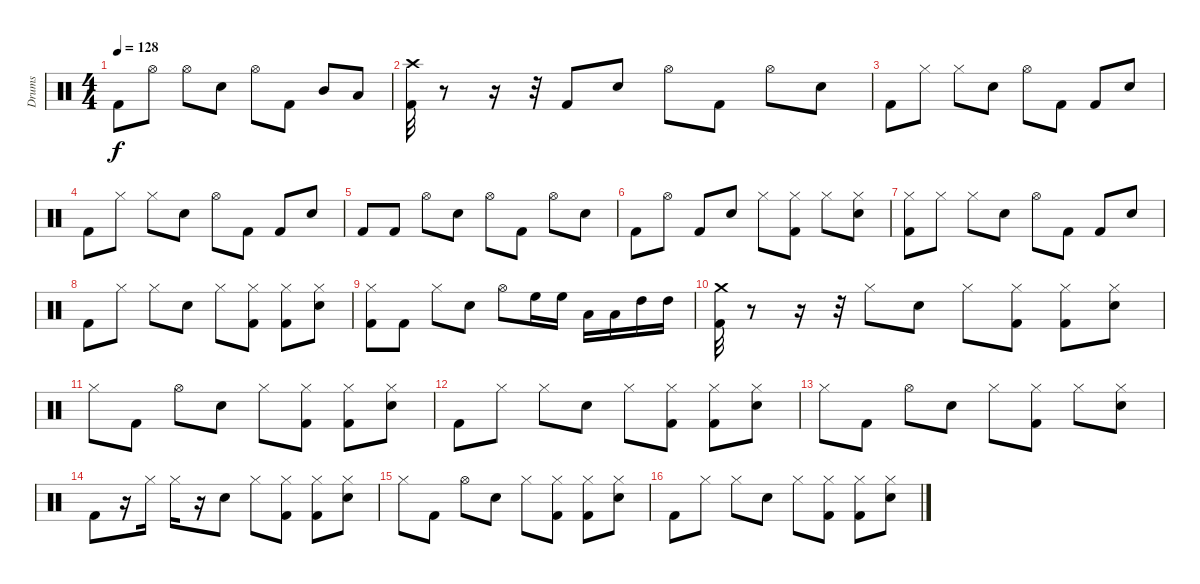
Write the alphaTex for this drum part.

\track ("Drums" "Drums") {instrument percussion}
\staff {score}
\articulation defaults
\ts (4 4)
\tempo 128
\clef neutral
\ks c "Kick (hit) 2".8{dy f} "Hi-Hat (open)".8 "Hi-Hat (open)".8 "Snare (hit) 2".8 "Hi-Hat (open)".8 "Kick (hit) 2".8 "Mid Tom (hit)".8 "Low Tom (hit)".8
|
("Crash high (hit)" "Kick (hit) 2").32 r.8 r.16 r.32 "Kick (hit) 2".8 "Snare (hit) 2".8 "Hi-Hat (open)".8 "Kick (hit) 2".8 "Hi-Hat (open)".8 "Snare (hit) 2".8 |
"Kick (hit) 2".8 "Hi-Hat (closed)".8 "Hi-Hat (closed)".8 "Snare (hit) 2".8 "Hi-Hat (open)".8 "Kick (hit) 2".8 "Kick (hit) 2".8 "Snare (hit) 2".8 |
"Kick (hit) 2".8 "Hi-Hat (closed)".8 "Hi-Hat (closed)".8 "Snare (hit) 2".8 "Hi-Hat (open)".8 "Kick (hit) 2".8 "Kick (hit) 2".8 "Snare (hit) 2".8 |
"Kick (hit) 2".8 "Kick (hit) 2".8 "Hi-Hat (open)".8 "Snare (hit) 2".8 "Hi-Hat (open)".8 "Kick (hit) 2".8 "Hi-Hat (open)".8 "Snare (hit) 2".8 |
"Kick (hit) 2".8 "Hi-Hat (open)".8 "Kick (hit) 2".8 "Snare (hit) 2".8 "Hi-Hat (closed)".8 ("Hi-Hat (closed)" "Kick (hit) 2").8 "Hi-Hat (closed)".8 ("Hi-Hat (closed)" "Snare (hit) 2").8 |
("Hi-Hat (closed)" "Kick (hit) 2").8 "Hi-Hat (closed)".8 "Hi-Hat (closed)".8 "Snare (hit) 2".8 "Hi-Hat (open)".8 "Kick (hit) 2".8 "Kick (hit) 2".8 "Snare (hit) 2".8 |
"Kick (hit) 2".8 "Hi-Hat (closed)".8 "Hi-Hat (closed)".8 "Snare (hit) 2".8 "Hi-Hat (closed)".8 ("Hi-Hat (closed)" "Kick (hit) 2").8 ("Hi-Hat (closed)" "Kick (hit) 2").8 ("Hi-Hat (closed)" "Snare (hit) 2").8 |
("Hi-Hat (closed)" "Kick (hit) 2").8 "Kick (hit) 2".8 "Hi-Hat (closed)".8 "Snare (hit) 2".8 "Hi-Hat (open)".8 "High Floor Tom (hit)".16 "High Floor Tom (hit)".16 "Low Tom (hit)".16 "Low Tom (hit)".16 "High Tom (hit)".16 "High Tom (hit)".16 |
("Crash medium (hit)" "Kick (hit) 2").32 r.8 r.16 r.32 "Hi-Hat (closed)".8 "Snare (hit) 2".8 "Hi-Hat (closed)".8 ("Hi-Hat (closed)" "Kick (hit) 2").8 ("Hi-Hat (closed)" "Kick (hit) 2").8 ("Hi-Hat (closed)" "Snare (hit) 2").8 |
"Hi-Hat (closed)".8 "Kick (hit) 2".8 "Hi-Hat (open)".8 "Snare (hit) 2".8 "Hi-Hat (closed)".8 ("Hi-Hat (closed)" "Kick (hit) 2").8 ("Hi-Hat (closed)" "Kick (hit) 2").8 ("Hi-Hat (closed)" "Snare (hit) 2").8 |
"Kick (hit) 2".8 "Hi-Hat (closed)".8 "Hi-Hat (closed)".8 "Snare (hit) 2".8 "Hi-Hat (closed)".8 ("Hi-Hat (closed)" "Kick (hit) 2").8 ("Hi-Hat (closed)" "Kick (hit) 2").8 ("Hi-Hat (closed)" "Snare (hit) 2").8 |
"Hi-Hat (closed)".8 "Kick (hit) 2".8 "Hi-Hat (open)".8 "Snare (hit) 2".8 "Hi-Hat (closed)".8 ("Hi-Hat (closed)" "Kick (hit) 2").8 "Hi-Hat (closed)".8 ("Hi-Hat (closed)" "Snare (hit) 2").8 |
"Kick (hit) 2".8 r.16 "Hi-Hat (closed)".16 "Hi-Hat (closed)".16 r.16 "Snare (hit) 2".8 "Hi-Hat (closed)".8 ("Hi-Hat (closed)" "Kick (hit) 2").8 ("Hi-Hat (closed)" "Kick (hit) 2").8 ("Hi-Hat (closed)" "Snare (hit) 2").8 |
"Hi-Hat (closed)".8 "Kick (hit) 2".8 "Hi-Hat (open)".8 "Snare (hit) 2".8 "Hi-Hat (closed)".8 ("Hi-Hat (closed)" "Kick (hit) 2").8 ("Hi-Hat (closed)" "Kick (hit) 2").8 ("Hi-Hat (closed)" "Snare (hit) 2").8 |
"Kick (hit) 2".8 "Hi-Hat (closed)".8 "Hi-Hat (closed)".8 "Snare (hit) 2".8 "Hi-Hat (closed)".8 ("Hi-Hat (closed)" "Kick (hit) 2").8 ("Hi-Hat (closed)" "Kick (hit) 2").8 ("Hi-Hat (closed)" "Snare (hit) 2").8
